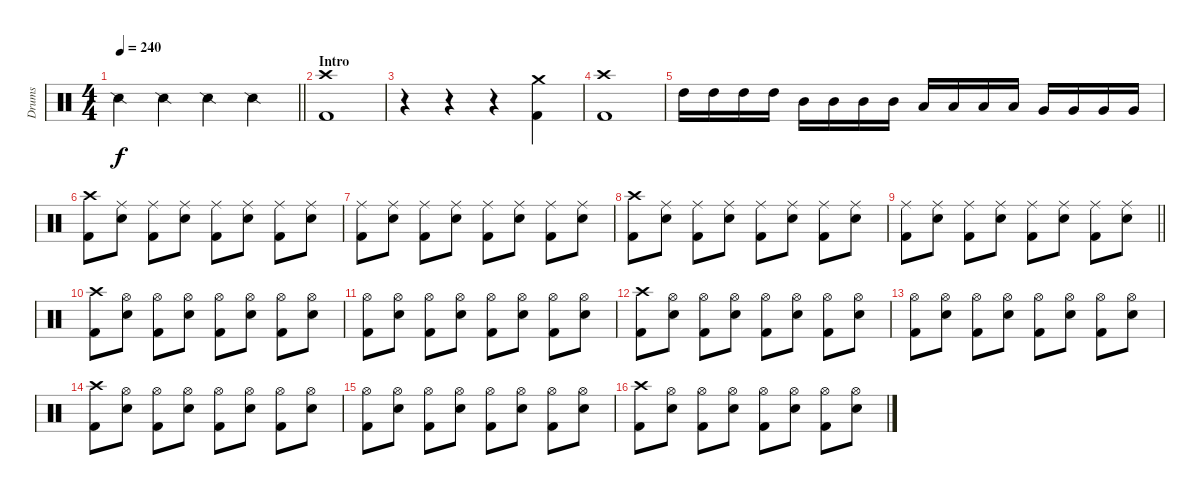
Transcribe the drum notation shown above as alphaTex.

\track ("Drums" "Drums") {instrument percussion}
\staff {score}
\articulation defaults
\ts (4 4)
\tempo 240
\clef neutral
\barLineRight lightlight
\ks c "Snare (side stick) 2".4{dy f} "Snare (side stick) 2".4 "Snare (side stick) 2".4 "Snare (side stick) 2".4
|
\section ("" "Intro")
("Crash high (hit)" "Kick (hit) 2").1 |
r.4 r.4 r.4 ("Crash medium (hit)" "Kick (hit) 2").4 |
("Crash high (hit)" "Kick (hit) 2").1 |
"High Tom (hit)".16 "High Tom (hit)".16 "High Tom (hit)".16 "High Tom (hit)".16 "Mid Tom (hit)".16 "Mid Tom (hit)".16 "Mid Tom (hit)".16 "Mid Tom (hit)".16 "Low Tom (hit)".16 "Low Tom (hit)".16 "Low Tom (hit)".16 "Low Tom (hit)".16 "Very Low Tom (hit)".16 "Very Low Tom (hit)".16 "Very Low Tom (hit)".16 "Very Low Tom (hit)".16 |
("Crash high (hit)" "Kick (hit) 2").8 ("Ride (middle)" "Electric Snare (hit)").8 ("Ride (middle)" "Kick (hit) 2").8 ("Ride (middle)" "Electric Snare (hit)").8 ("Ride (middle)" "Kick (hit) 2").8 ("Ride (middle)" "Electric Snare (hit)").8 ("Ride (middle)" "Kick (hit) 2").8 ("Ride (middle)" "Electric Snare (hit)").8 |
("Ride (middle)" "Kick (hit) 2").8 ("Ride (middle)" "Electric Snare (hit)").8 ("Ride (middle)" "Kick (hit) 2").8 ("Ride (middle)" "Electric Snare (hit)").8 ("Ride (middle)" "Kick (hit) 2").8 ("Ride (middle)" "Electric Snare (hit)").8 ("Ride (middle)" "Kick (hit) 2").8 ("Ride (middle)" "Electric Snare (hit)").8 |
("Crash high (hit)" "Kick (hit) 2").8 ("Ride (middle)" "Electric Snare (hit)").8 ("Ride (middle)" "Kick (hit) 2").8 ("Ride (middle)" "Electric Snare (hit)").8 ("Ride (middle)" "Kick (hit) 2").8 ("Ride (middle)" "Electric Snare (hit)").8 ("Ride (middle)" "Kick (hit) 2").8 ("Ride (middle)" "Electric Snare (hit)").8 |
\barLineRight lightlight
("Ride (middle)" "Kick (hit) 2").8 ("Ride (middle)" "Electric Snare (hit)").8 ("Ride (middle)" "Kick (hit) 2").8 ("Ride (middle)" "Electric Snare (hit)").8 ("Ride (middle)" "Kick (hit) 2").8 ("Ride (middle)" "Electric Snare (hit)").8 ("Ride (middle)" "Kick (hit) 2").8 ("Ride (middle)" "Electric Snare (hit)").8 |
\section ("" "")
("Crash high (hit)" "Kick (hit) 2").8 ("Hi-Hat (open)" "Electric Snare (hit)").8 ("Hi-Hat (open)" "Kick (hit) 2").8 ("Hi-Hat (open)" "Electric Snare (hit)").8 ("Hi-Hat (open)" "Kick (hit) 2").8 ("Hi-Hat (open)" "Electric Snare (hit)").8 ("Hi-Hat (open)" "Kick (hit) 2").8 ("Hi-Hat (open)" "Electric Snare (hit)").8 |
("Hi-Hat (open)" "Kick (hit) 2").8 ("Hi-Hat (open)" "Electric Snare (hit)").8 ("Hi-Hat (open)" "Kick (hit) 2").8 ("Hi-Hat (open)" "Electric Snare (hit)").8 ("Hi-Hat (open)" "Kick (hit) 2").8 ("Hi-Hat (open)" "Electric Snare (hit)").8 ("Hi-Hat (open)" "Kick (hit) 2").8 ("Hi-Hat (open)" "Electric Snare (hit)").8 |
("Crash high (hit)" "Kick (hit) 2").8 ("Hi-Hat (open)" "Electric Snare (hit)").8 ("Hi-Hat (open)" "Kick (hit) 2").8 ("Hi-Hat (open)" "Electric Snare (hit)").8 ("Hi-Hat (open)" "Kick (hit) 2").8 ("Hi-Hat (open)" "Electric Snare (hit)").8 ("Hi-Hat (open)" "Kick (hit) 2").8 ("Hi-Hat (open)" "Electric Snare (hit)").8 |
("Hi-Hat (open)" "Kick (hit) 2").8 ("Hi-Hat (open)" "Electric Snare (hit)").8 ("Hi-Hat (open)" "Kick (hit) 2").8 ("Hi-Hat (open)" "Electric Snare (hit)").8 ("Hi-Hat (open)" "Kick (hit) 2").8 ("Hi-Hat (open)" "Electric Snare (hit)").8 ("Hi-Hat (open)" "Kick (hit) 2").8 ("Hi-Hat (open)" "Electric Snare (hit)").8 |
("Crash high (hit)" "Kick (hit) 2").8 ("Hi-Hat (open)" "Electric Snare (hit)").8 ("Hi-Hat (open)" "Kick (hit) 2").8 ("Hi-Hat (open)" "Electric Snare (hit)").8 ("Hi-Hat (open)" "Kick (hit) 2").8 ("Hi-Hat (open)" "Electric Snare (hit)").8 ("Hi-Hat (open)" "Kick (hit) 2").8 ("Hi-Hat (open)" "Electric Snare (hit)").8 |
("Hi-Hat (open)" "Kick (hit) 2").8 ("Hi-Hat (open)" "Electric Snare (hit)").8 ("Hi-Hat (open)" "Kick (hit) 2").8 ("Hi-Hat (open)" "Electric Snare (hit)").8 ("Hi-Hat (open)" "Kick (hit) 2").8 ("Hi-Hat (open)" "Electric Snare (hit)").8 ("Hi-Hat (open)" "Kick (hit) 2").8 ("Hi-Hat (open)" "Electric Snare (hit)").8 |
("Crash high (hit)" "Kick (hit) 2").8 ("Hi-Hat (open)" "Electric Snare (hit)").8 ("Hi-Hat (open)" "Kick (hit) 2").8 ("Hi-Hat (open)" "Electric Snare (hit)").8 ("Hi-Hat (open)" "Kick (hit) 2").8 ("Hi-Hat (open)" "Electric Snare (hit)").8 ("Hi-Hat (open)" "Kick (hit) 2").8 ("Hi-Hat (open)" "Electric Snare (hit)").8
